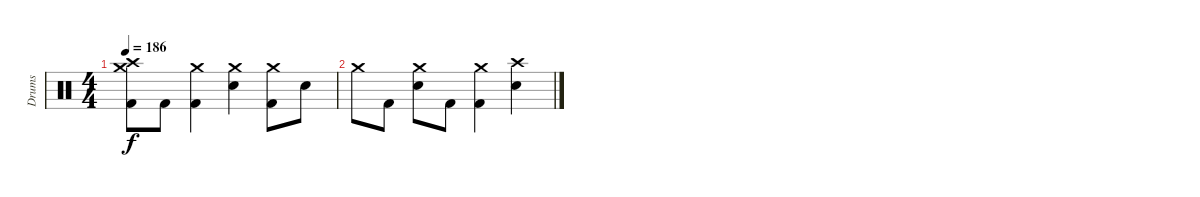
\track ("Drums" "Drums") {instrument percussion}
\staff {score}
\articulation defaults
\ts (4 4)
\tempo 186
\clef neutral
\ks c
("Crash medium (hit)" "Crash high (hit)" "Kick (hit) 2").8{dy f} "Kick (hit) 2".8 ("Crash medium (hit)" "Kick (hit) 2").4 ("Crash medium (hit)" "Electric Snare (hit)").4 ("Crash medium (hit)" "Kick (hit) 2").8 "Electric Snare (hit)".8 |
"Crash medium (hit)".8 "Kick (hit) 2".8 ("Crash medium (hit)" "Electric Snare (hit)").8 "Kick (hit) 2".8 ("Crash medium (hit)" "Kick (hit) 2").4 ("Crash high (hit)" "Electric Snare (hit)").4
